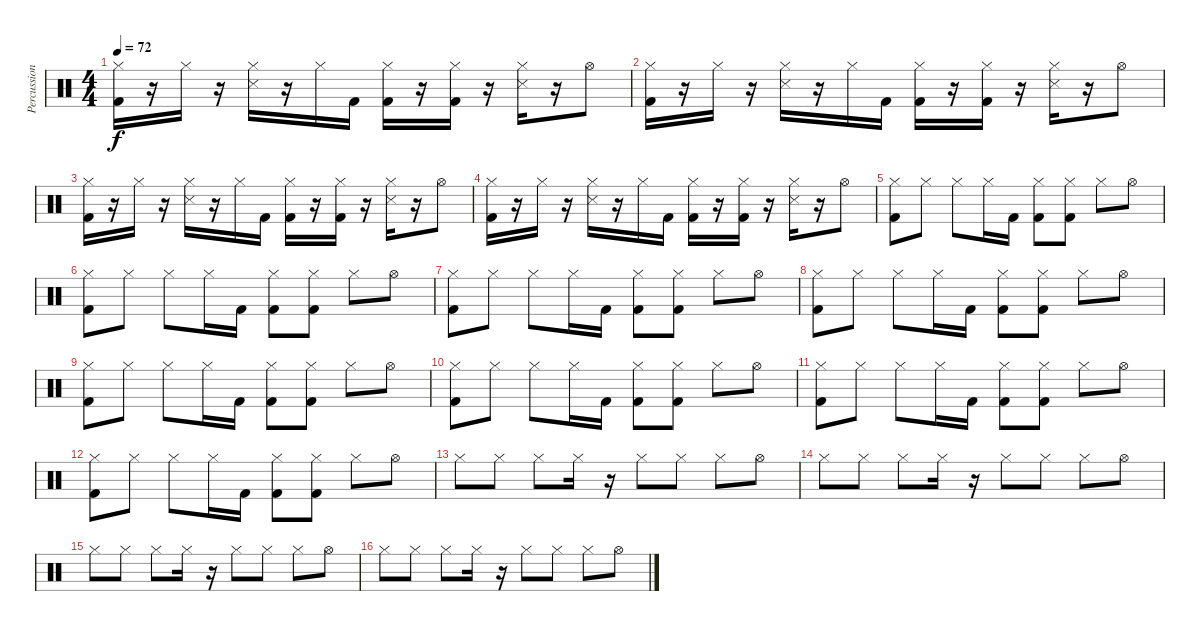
\track ("Percussions" "Percussion") {instrument percussion}
\staff {score}
\articulation defaults
\ts (4 4)
\tempo 72
\clef neutral
\ks c
("Kick (hit) 2" "Hi-Hat (closed)").16{dy f} r.16 "Hi-Hat (closed)".16 r.16 ("Snare (side stick) 3" "Hi-Hat (closed)").16 r.16 "Hi-Hat (closed)".16 "Kick (hit) 2".16 ("Kick (hit) 2" "Hi-Hat (closed)").16 r.16 ("Kick (hit) 2" "Hi-Hat (closed)").16 r.16 ("Snare (side stick) 3" "Hi-Hat (closed)").16 r.16 "Hi-Hat (open)".8 |
("Kick (hit) 2" "Hi-Hat (closed)").16 r.16 "Hi-Hat (closed)".16 r.16 ("Snare (side stick) 3" "Hi-Hat (closed)").16 r.16 "Hi-Hat (closed)".16 "Kick (hit) 2".16 ("Kick (hit) 2" "Hi-Hat (closed)").16 r.16 ("Kick (hit) 2" "Hi-Hat (closed)").16 r.16 ("Snare (side stick) 3" "Hi-Hat (closed)").16 r.16 "Hi-Hat (open)".8 |
("Kick (hit) 2" "Hi-Hat (closed)").16 r.16 "Hi-Hat (closed)".16 r.16 ("Snare (side stick) 3" "Hi-Hat (closed)").16 r.16 "Hi-Hat (closed)".16 "Kick (hit) 2".16 ("Kick (hit) 2" "Hi-Hat (closed)").16 r.16 ("Kick (hit) 2" "Hi-Hat (closed)").16 r.16 ("Snare (side stick) 3" "Hi-Hat (closed)").16 r.16 "Hi-Hat (open)".8 |
("Kick (hit) 2" "Hi-Hat (closed)").16 r.16 "Hi-Hat (closed)".16 r.16 ("Snare (side stick) 3" "Hi-Hat (closed)").16 r.16 "Hi-Hat (closed)".16 "Kick (hit) 2".16 ("Kick (hit) 2" "Hi-Hat (closed)").16 r.16 ("Kick (hit) 2" "Hi-Hat (closed)").16 r.16 ("Snare (side stick) 3" "Hi-Hat (closed)").16 r.16 "Hi-Hat (open)".8 |
("Kick (hit) 2" "Hi-Hat (closed)").8 "Hi-Hat (closed)".8 "Hi-Hat (closed)".8 "Hi-Hat (closed)".16 "Kick (hit) 2".16 ("Kick (hit) 2" "Hi-Hat (closed)").8 ("Kick (hit) 2" "Hi-Hat (closed)").8 "Hi-Hat (closed)".8 "Hi-Hat (open)".8 |
("Kick (hit) 2" "Hi-Hat (closed)").8 "Hi-Hat (closed)".8 "Hi-Hat (closed)".8 "Hi-Hat (closed)".16 "Kick (hit) 2".16 ("Kick (hit) 2" "Hi-Hat (closed)").8 ("Kick (hit) 2" "Hi-Hat (closed)").8 "Hi-Hat (closed)".8 "Hi-Hat (open)".8 |
("Kick (hit) 2" "Hi-Hat (closed)").8 "Hi-Hat (closed)".8 "Hi-Hat (closed)".8 "Hi-Hat (closed)".16 "Kick (hit) 2".16 ("Kick (hit) 2" "Hi-Hat (closed)").8 ("Kick (hit) 2" "Hi-Hat (closed)").8 "Hi-Hat (closed)".8 "Hi-Hat (open)".8 |
("Kick (hit) 2" "Hi-Hat (closed)").8 "Hi-Hat (closed)".8 "Hi-Hat (closed)".8 "Hi-Hat (closed)".16 "Kick (hit) 2".16 ("Kick (hit) 2" "Hi-Hat (closed)").8 ("Kick (hit) 2" "Hi-Hat (closed)").8 "Hi-Hat (closed)".8 "Hi-Hat (open)".8 |
("Kick (hit) 2" "Hi-Hat (closed)").8 "Hi-Hat (closed)".8 "Hi-Hat (closed)".8 "Hi-Hat (closed)".16 "Kick (hit) 2".16 ("Kick (hit) 2" "Hi-Hat (closed)").8 ("Kick (hit) 2" "Hi-Hat (closed)").8 "Hi-Hat (closed)".8 "Hi-Hat (open)".8 |
("Kick (hit) 2" "Hi-Hat (closed)").8 "Hi-Hat (closed)".8 "Hi-Hat (closed)".8 "Hi-Hat (closed)".16 "Kick (hit) 2".16 ("Kick (hit) 2" "Hi-Hat (closed)").8 ("Kick (hit) 2" "Hi-Hat (closed)").8 "Hi-Hat (closed)".8 "Hi-Hat (open)".8 |
("Kick (hit) 2" "Hi-Hat (closed)").8 "Hi-Hat (closed)".8 "Hi-Hat (closed)".8 "Hi-Hat (closed)".16 "Kick (hit) 2".16 ("Kick (hit) 2" "Hi-Hat (closed)").8 ("Kick (hit) 2" "Hi-Hat (closed)").8 "Hi-Hat (closed)".8 "Hi-Hat (open)".8 |
("Kick (hit) 2" "Hi-Hat (closed)").8 "Hi-Hat (closed)".8 "Hi-Hat (closed)".8 "Hi-Hat (closed)".16 "Kick (hit) 2".16 ("Kick (hit) 2" "Hi-Hat (closed)").8 ("Kick (hit) 2" "Hi-Hat (closed)").8 "Hi-Hat (closed)".8 "Hi-Hat (open)".8 |
"Hi-Hat (closed)".8 "Hi-Hat (closed)".8 "Hi-Hat (closed)".8 "Hi-Hat (closed)".16 r.16 "Hi-Hat (closed)".8 "Hi-Hat (closed)".8 "Hi-Hat (closed)".8 "Hi-Hat (open)".8 |
"Hi-Hat (closed)".8 "Hi-Hat (closed)".8 "Hi-Hat (closed)".8 "Hi-Hat (closed)".16 r.16 "Hi-Hat (closed)".8 "Hi-Hat (closed)".8 "Hi-Hat (closed)".8 "Hi-Hat (open)".8 |
"Hi-Hat (closed)".8 "Hi-Hat (closed)".8 "Hi-Hat (closed)".8 "Hi-Hat (closed)".16 r.16 "Hi-Hat (closed)".8 "Hi-Hat (closed)".8 "Hi-Hat (closed)".8 "Hi-Hat (open)".8 |
"Hi-Hat (closed)".8 "Hi-Hat (closed)".8 "Hi-Hat (closed)".8 "Hi-Hat (closed)".16 r.16 "Hi-Hat (closed)".8 "Hi-Hat (closed)".8 "Hi-Hat (closed)".8 "Hi-Hat (open)".8
